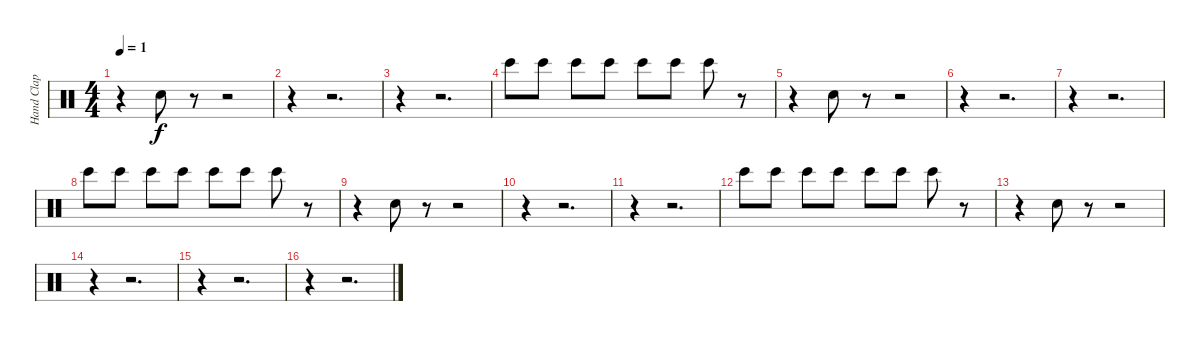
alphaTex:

\track ("Hand Clap" "Hand Clap") {instrument percussion}
\staff {score}
\articulation defaults
\ts (4 4)
\tempo 1
\clef neutral
\ks c
r.4{dy f} "Hand Clap (hit)".8 r.8 r.2 |
r.4 r.2{d} |
r.4 r.2{d} |
"Bongo High (hit)".8 "Bongo High (hit)".8 "Bongo High (hit)".8 "Bongo High (hit)".8 "Bongo High (hit)".8 "Bongo High (hit)".8 "Bongo High (hit)".8 r.8 |
r.4 "Hand Clap (hit)".8 r.8 r.2 |
r.4 r.2{d} |
r.4 r.2{d} |
"Bongo High (hit)".8 "Bongo High (hit)".8 "Bongo High (hit)".8 "Bongo High (hit)".8 "Bongo High (hit)".8 "Bongo High (hit)".8 "Bongo High (hit)".8 r.8 |
r.4 "Hand Clap (hit)".8 r.8 r.2 |
r.4 r.2{d} |
r.4 r.2{d} |
"Bongo High (hit)".8 "Bongo High (hit)".8 "Bongo High (hit)".8 "Bongo High (hit)".8 "Bongo High (hit)".8 "Bongo High (hit)".8 "Bongo High (hit)".8 r.8 |
r.4 "Hand Clap (hit)".8 r.8 r.2 |
r.4 r.2{d} |
r.4 r.2{d} |
r.4 r.2{d}
